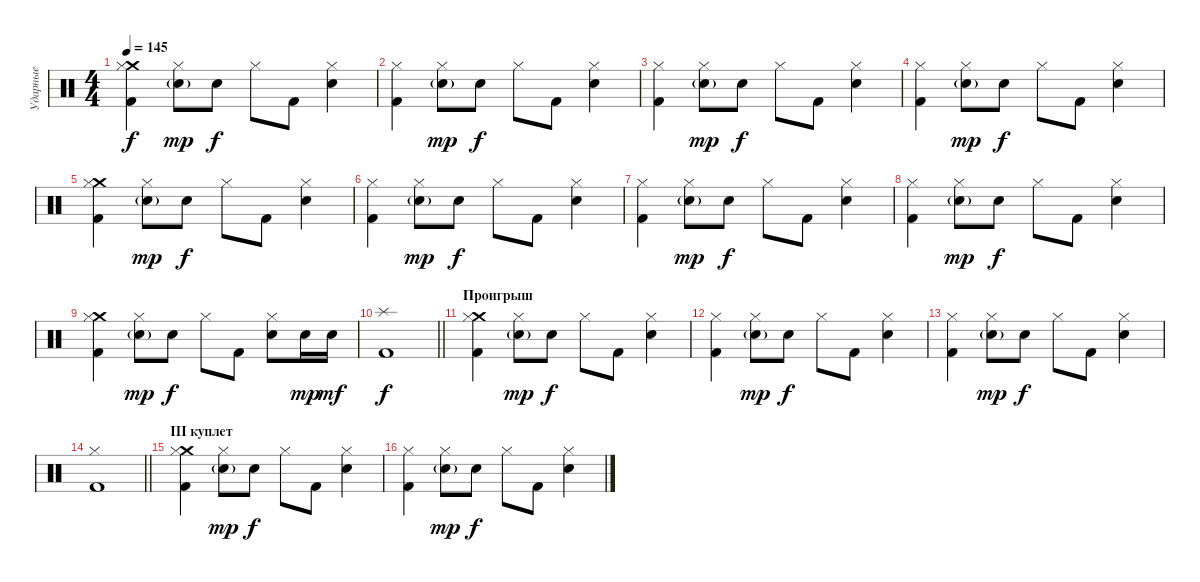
\track ("Ударные" "Ударные") {instrument percussion}
\staff {score}
\articulation defaults
\ts (4 4)
\tempo 145
\clef neutral
\ks c
("Crash medium (hit)" "Kick (hit) 2" "Hi-Hat (closed)").4{dy f} ("Electric Snare (hit)"{g} "Hi-Hat (closed)").8{dy mp} "Electric Snare (hit)".8{dy f} "Hi-Hat (closed)".8 "Kick (hit) 2".8 ("Electric Snare (hit)" "Hi-Hat (closed)").4 |
("Kick (hit) 2" "Hi-Hat (closed)").4 ("Electric Snare (hit)"{g} "Hi-Hat (closed)").8{dy mp} "Electric Snare (hit)".8{dy f} "Hi-Hat (closed)".8 "Kick (hit) 2".8 ("Electric Snare (hit)" "Hi-Hat (closed)").4 |
("Kick (hit) 2" "Hi-Hat (closed)").4 ("Electric Snare (hit)"{g} "Hi-Hat (closed)").8{dy mp} "Electric Snare (hit)".8{dy f} "Hi-Hat (closed)".8 "Kick (hit) 2".8 ("Electric Snare (hit)" "Hi-Hat (closed)").4 |
("Kick (hit) 2" "Hi-Hat (closed)").4 ("Electric Snare (hit)"{g} "Hi-Hat (closed)").8{dy mp} "Electric Snare (hit)".8{dy f} "Hi-Hat (closed)".8 "Kick (hit) 2".8 ("Electric Snare (hit)" "Hi-Hat (closed)").4 |
("Crash medium (hit)" "Kick (hit) 2" "Hi-Hat (closed)").4 ("Electric Snare (hit)"{g} "Hi-Hat (closed)").8{dy mp} "Electric Snare (hit)".8{dy f} "Hi-Hat (closed)".8 "Kick (hit) 2".8 ("Electric Snare (hit)" "Hi-Hat (closed)").4 |
("Kick (hit) 2" "Hi-Hat (closed)").4 ("Electric Snare (hit)"{g} "Hi-Hat (closed)").8{dy mp} "Electric Snare (hit)".8{dy f} "Hi-Hat (closed)".8 "Kick (hit) 2".8 ("Electric Snare (hit)" "Hi-Hat (closed)").4 |
("Kick (hit) 2" "Hi-Hat (closed)").4 ("Electric Snare (hit)"{g} "Hi-Hat (closed)").8{dy mp} "Electric Snare (hit)".8{dy f} "Hi-Hat (closed)".8 "Kick (hit) 2".8 ("Electric Snare (hit)" "Hi-Hat (closed)").4 |
("Kick (hit) 2" "Hi-Hat (closed)").4 ("Electric Snare (hit)"{g} "Hi-Hat (closed)").8{dy mp} "Electric Snare (hit)".8{dy f} "Hi-Hat (closed)".8 "Kick (hit) 2".8 ("Electric Snare (hit)" "Hi-Hat (closed)").4 |
("Crash medium (hit)" "Kick (hit) 2" "Hi-Hat (closed)").4 ("Electric Snare (hit)"{g} "Hi-Hat (closed)").8{dy mp} "Electric Snare (hit)".8{dy f} "Hi-Hat (closed)".8 "Kick (hit) 2".8 ("Electric Snare (hit)" "Hi-Hat (closed)").8 "Electric Snare (hit)".16{dy mp} "Electric Snare (hit)".16{dy mf} |
\barLineRight lightlight
("Splash (hit)" "Kick (hit) 2").1{dy f} |
\section ("" "Проигрыш")
("Crash medium (hit)" "Kick (hit) 2" "Hi-Hat (closed)").4 ("Electric Snare (hit)"{g} "Hi-Hat (closed)").8{dy mp} "Electric Snare (hit)".8{dy f} "Hi-Hat (closed)".8 "Kick (hit) 2".8 ("Electric Snare (hit)" "Hi-Hat (closed)").4 |
("Kick (hit) 2" "Hi-Hat (closed)").4 ("Electric Snare (hit)"{g} "Hi-Hat (closed)").8{dy mp} "Electric Snare (hit)".8{dy f} "Hi-Hat (closed)".8 "Kick (hit) 2".8 ("Electric Snare (hit)" "Hi-Hat (closed)").4 |
("Kick (hit) 2" "Hi-Hat (closed)").4 ("Electric Snare (hit)"{g} "Hi-Hat (closed)").8{dy mp} "Electric Snare (hit)".8{dy f} "Hi-Hat (closed)".8 "Kick (hit) 2".8 ("Electric Snare (hit)" "Hi-Hat (closed)").4 |
\barLineRight lightlight
("Kick (hit) 2" "Hi-Hat (closed)").1 |
\section ("" "III куплет")
("Crash medium (hit)" "Kick (hit) 2" "Hi-Hat (closed)").4 ("Electric Snare (hit)"{g} "Hi-Hat (closed)").8{dy mp} "Electric Snare (hit)".8{dy f} "Hi-Hat (closed)".8 "Kick (hit) 2".8 ("Electric Snare (hit)" "Hi-Hat (closed)").4 |
("Kick (hit) 2" "Hi-Hat (closed)").4 ("Electric Snare (hit)"{g} "Hi-Hat (closed)").8{dy mp} "Electric Snare (hit)".8{dy f} "Hi-Hat (closed)".8 "Kick (hit) 2".8 ("Electric Snare (hit)" "Hi-Hat (closed)").4
